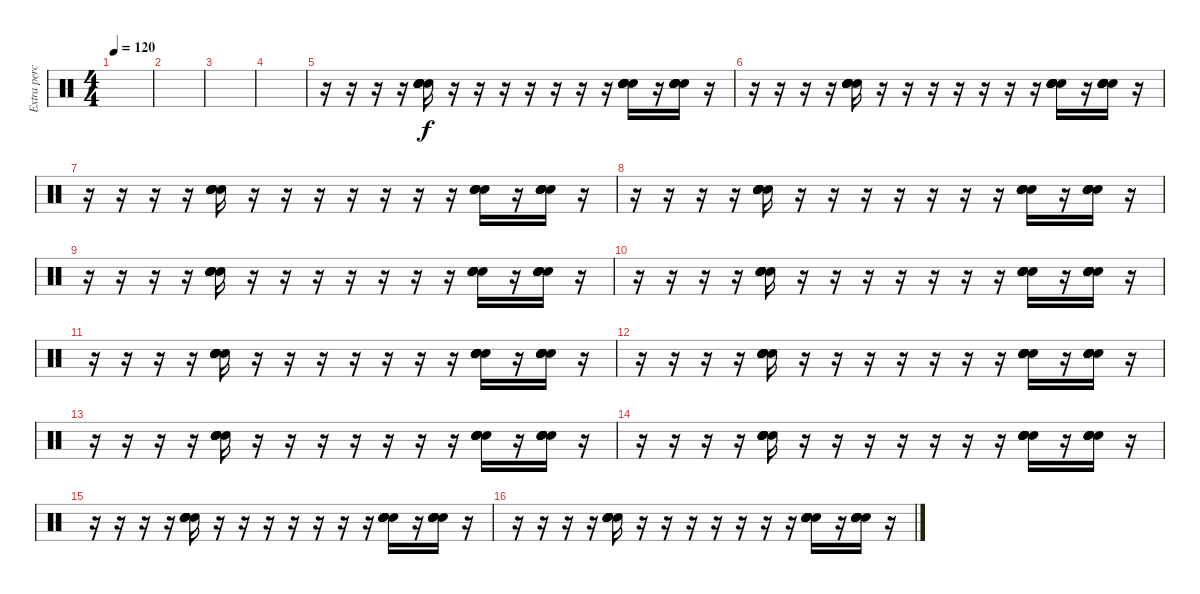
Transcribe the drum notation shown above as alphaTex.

\track ("Extra percussion" "Extra perc") {instrument percussion}
\staff {score}
\articulation defaults
\ts (4 4)
\tempo 120
\clef neutral
\ks c
|
|
|
|
r.16 r.16 r.16 r.16 ("Hand Clap (hit)" "Hand Clap (hit)" "Hand Clap (hit)" "Hand Clap (hit)" "Hand Clap (hit)" "Hand Clap (hit)").16 r.16 r.16 r.16 r.16 r.16 r.16 r.16 ("Hand Clap (hit)" "Hand Clap (hit)" "Hand Clap (hit)" "Hand Clap (hit)" "Hand Clap (hit)" "Hand Clap (hit)").16 r.16 ("Hand Clap (hit)" "Hand Clap (hit)" "Hand Clap (hit)" "Hand Clap (hit)" "Hand Clap (hit)" "Hand Clap (hit)").16 r.16 |
r.16 r.16 r.16 r.16 ("Hand Clap (hit)" "Hand Clap (hit)" "Hand Clap (hit)" "Hand Clap (hit)" "Hand Clap (hit)" "Hand Clap (hit)").16 r.16 r.16 r.16 r.16 r.16 r.16 r.16 ("Hand Clap (hit)" "Hand Clap (hit)" "Hand Clap (hit)" "Hand Clap (hit)" "Hand Clap (hit)" "Hand Clap (hit)").16 r.16 ("Hand Clap (hit)" "Hand Clap (hit)" "Hand Clap (hit)" "Hand Clap (hit)" "Hand Clap (hit)" "Hand Clap (hit)").16 r.16 |
r.16 r.16 r.16 r.16 ("Hand Clap (hit)" "Hand Clap (hit)" "Hand Clap (hit)" "Hand Clap (hit)" "Hand Clap (hit)" "Hand Clap (hit)").16 r.16 r.16 r.16 r.16 r.16 r.16 r.16 ("Hand Clap (hit)" "Hand Clap (hit)" "Hand Clap (hit)" "Hand Clap (hit)" "Hand Clap (hit)" "Hand Clap (hit)").16 r.16 ("Hand Clap (hit)" "Hand Clap (hit)" "Hand Clap (hit)" "Hand Clap (hit)" "Hand Clap (hit)" "Hand Clap (hit)").16 r.16 |
r.16 r.16 r.16 r.16 ("Hand Clap (hit)" "Hand Clap (hit)" "Hand Clap (hit)" "Hand Clap (hit)" "Hand Clap (hit)" "Hand Clap (hit)").16 r.16 r.16 r.16 r.16 r.16 r.16 r.16 ("Hand Clap (hit)" "Hand Clap (hit)" "Hand Clap (hit)" "Hand Clap (hit)" "Hand Clap (hit)" "Hand Clap (hit)").16 r.16 ("Hand Clap (hit)" "Hand Clap (hit)" "Hand Clap (hit)" "Hand Clap (hit)" "Hand Clap (hit)" "Hand Clap (hit)").16 r.16 |
r.16 r.16 r.16 r.16 ("Hand Clap (hit)" "Hand Clap (hit)" "Hand Clap (hit)" "Hand Clap (hit)" "Hand Clap (hit)" "Hand Clap (hit)").16 r.16 r.16 r.16 r.16 r.16 r.16 r.16 ("Hand Clap (hit)" "Hand Clap (hit)" "Hand Clap (hit)" "Hand Clap (hit)" "Hand Clap (hit)" "Hand Clap (hit)").16 r.16 ("Hand Clap (hit)" "Hand Clap (hit)" "Hand Clap (hit)" "Hand Clap (hit)" "Hand Clap (hit)" "Hand Clap (hit)").16 r.16 |
r.16 r.16 r.16 r.16 ("Hand Clap (hit)" "Hand Clap (hit)" "Hand Clap (hit)" "Hand Clap (hit)" "Hand Clap (hit)" "Hand Clap (hit)").16 r.16 r.16 r.16 r.16 r.16 r.16 r.16 ("Hand Clap (hit)" "Hand Clap (hit)" "Hand Clap (hit)" "Hand Clap (hit)" "Hand Clap (hit)" "Hand Clap (hit)").16 r.16 ("Hand Clap (hit)" "Hand Clap (hit)" "Hand Clap (hit)" "Hand Clap (hit)" "Hand Clap (hit)" "Hand Clap (hit)").16 r.16 |
r.16 r.16 r.16 r.16 ("Hand Clap (hit)" "Hand Clap (hit)" "Hand Clap (hit)" "Hand Clap (hit)" "Hand Clap (hit)" "Hand Clap (hit)").16 r.16 r.16 r.16 r.16 r.16 r.16 r.16 ("Hand Clap (hit)" "Hand Clap (hit)" "Hand Clap (hit)" "Hand Clap (hit)" "Hand Clap (hit)" "Hand Clap (hit)").16 r.16 ("Hand Clap (hit)" "Hand Clap (hit)" "Hand Clap (hit)" "Hand Clap (hit)" "Hand Clap (hit)" "Hand Clap (hit)").16 r.16 |
r.16 r.16 r.16 r.16 ("Hand Clap (hit)" "Hand Clap (hit)" "Hand Clap (hit)" "Hand Clap (hit)" "Hand Clap (hit)" "Hand Clap (hit)").16 r.16 r.16 r.16 r.16 r.16 r.16 r.16 ("Hand Clap (hit)" "Hand Clap (hit)" "Hand Clap (hit)" "Hand Clap (hit)" "Hand Clap (hit)" "Hand Clap (hit)").16 r.16 ("Hand Clap (hit)" "Hand Clap (hit)" "Hand Clap (hit)" "Hand Clap (hit)" "Hand Clap (hit)" "Hand Clap (hit)").16 r.16 |
r.16 r.16 r.16 r.16 ("Hand Clap (hit)" "Hand Clap (hit)" "Hand Clap (hit)" "Hand Clap (hit)" "Hand Clap (hit)" "Hand Clap (hit)").16 r.16 r.16 r.16 r.16 r.16 r.16 r.16 ("Hand Clap (hit)" "Hand Clap (hit)" "Hand Clap (hit)" "Hand Clap (hit)" "Hand Clap (hit)" "Hand Clap (hit)").16 r.16 ("Hand Clap (hit)" "Hand Clap (hit)" "Hand Clap (hit)" "Hand Clap (hit)" "Hand Clap (hit)" "Hand Clap (hit)").16 r.16 |
r.16 r.16 r.16 r.16 ("Hand Clap (hit)" "Hand Clap (hit)" "Hand Clap (hit)" "Hand Clap (hit)" "Hand Clap (hit)" "Hand Clap (hit)").16 r.16 r.16 r.16 r.16 r.16 r.16 r.16 ("Hand Clap (hit)" "Hand Clap (hit)" "Hand Clap (hit)" "Hand Clap (hit)" "Hand Clap (hit)" "Hand Clap (hit)").16 r.16 ("Hand Clap (hit)" "Hand Clap (hit)" "Hand Clap (hit)" "Hand Clap (hit)" "Hand Clap (hit)" "Hand Clap (hit)").16 r.16 |
r.16 r.16 r.16 r.16 ("Hand Clap (hit)" "Hand Clap (hit)" "Hand Clap (hit)" "Hand Clap (hit)" "Hand Clap (hit)" "Hand Clap (hit)").16 r.16 r.16 r.16 r.16 r.16 r.16 r.16 ("Hand Clap (hit)" "Hand Clap (hit)" "Hand Clap (hit)" "Hand Clap (hit)" "Hand Clap (hit)" "Hand Clap (hit)").16 r.16 ("Hand Clap (hit)" "Hand Clap (hit)" "Hand Clap (hit)" "Hand Clap (hit)" "Hand Clap (hit)" "Hand Clap (hit)").16 r.16 |
r.16 r.16 r.16 r.16 ("Hand Clap (hit)" "Hand Clap (hit)" "Hand Clap (hit)" "Hand Clap (hit)" "Hand Clap (hit)" "Hand Clap (hit)").16 r.16 r.16 r.16 r.16 r.16 r.16 r.16 ("Hand Clap (hit)" "Hand Clap (hit)" "Hand Clap (hit)" "Hand Clap (hit)" "Hand Clap (hit)" "Hand Clap (hit)").16 r.16 ("Hand Clap (hit)" "Hand Clap (hit)" "Hand Clap (hit)" "Hand Clap (hit)" "Hand Clap (hit)" "Hand Clap (hit)").16 r.16
